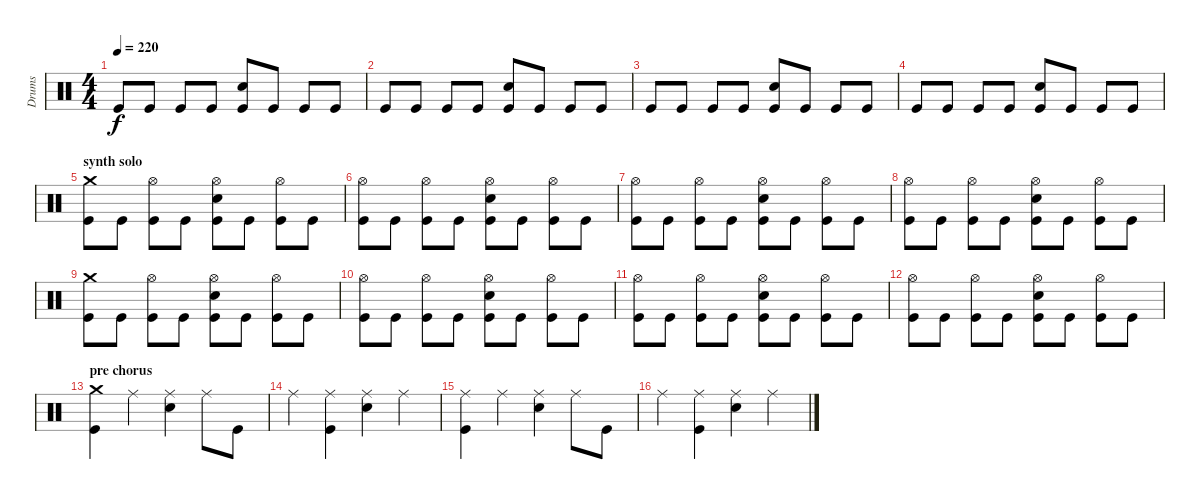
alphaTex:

\track ("Drums" "Drums") {instrument percussion}
\staff {score}
\articulation defaults
\ts (4 4)
\tempo 220
\clef neutral
\ks c "Kick (hit)".8{dy f} "Kick (hit)".8 "Kick (hit)"{x}.8 "Kick (hit)".8
("Electric Snare (hit)" "Kick (hit)").8 "Kick (hit)".8 "Kick (hit)"{x}.8 "Kick (hit)".8 |
"Kick (hit)".8 "Kick (hit)".8 "Kick (hit)"{x}.8 "Kick (hit)".8 ("Electric Snare (hit)" "Kick (hit)").8 "Kick (hit)".8 "Kick (hit)"{x}.8 "Kick (hit)".8 |
"Kick (hit)".8 "Kick (hit)".8 "Kick (hit)"{x}.8 "Kick (hit)".8 ("Electric Snare (hit)" "Kick (hit)").8 "Kick (hit)".8 "Kick (hit)"{x}.8 "Kick (hit)".8 |
"Kick (hit)".8 "Kick (hit)".8 "Kick (hit)"{x}.8 "Kick (hit)".8 ("Electric Snare (hit)" "Kick (hit)").8 "Kick (hit)".8 "Kick (hit)"{x}.8 "Kick (hit)".8 |
\section ("" "synth solo")
("Crash medium (hit)" "Kick (hit)").8 "Kick (hit)".8 ("Hi-Hat (open)" "Kick (hit)"{x}).8 "Kick (hit)".8 ("Hi-Hat (open)" "Electric Snare (hit)" "Kick (hit)").8 "Kick (hit)".8 ("Hi-Hat (open)" "Kick (hit)"{x}).8 "Kick (hit)".8 |
("Hi-Hat (open)" "Kick (hit)").8 "Kick (hit)".8 ("Hi-Hat (open)" "Kick (hit)"{x}).8 "Kick (hit)".8 ("Hi-Hat (open)" "Electric Snare (hit)" "Kick (hit)").8 "Kick (hit)".8 ("Hi-Hat (open)" "Kick (hit)"{x}).8 "Kick (hit)".8 |
("Hi-Hat (open)" "Kick (hit)").8 "Kick (hit)".8 ("Hi-Hat (open)" "Kick (hit)"{x}).8 "Kick (hit)".8 ("Hi-Hat (open)" "Electric Snare (hit)" "Kick (hit)").8 "Kick (hit)".8 ("Hi-Hat (open)" "Kick (hit)"{x}).8 "Kick (hit)".8 |
("Hi-Hat (open)" "Kick (hit)").8 "Kick (hit)".8 ("Hi-Hat (open)" "Kick (hit)"{x}).8 "Kick (hit)".8 ("Hi-Hat (open)" "Electric Snare (hit)" "Kick (hit)").8 "Kick (hit)".8 ("Hi-Hat (open)" "Kick (hit)"{x}).8 "Kick (hit)".8 |
("Crash medium (hit)" "Kick (hit)").8 "Kick (hit)".8 ("Hi-Hat (open)" "Kick (hit)"{x}).8 "Kick (hit)".8 ("Hi-Hat (open)" "Electric Snare (hit)" "Kick (hit)").8 "Kick (hit)".8 ("Hi-Hat (open)" "Kick (hit)"{x}).8 "Kick (hit)".8 |
("Hi-Hat (open)" "Kick (hit)").8 "Kick (hit)".8 ("Hi-Hat (open)" "Kick (hit)"{x}).8 "Kick (hit)".8 ("Hi-Hat (open)" "Electric Snare (hit)" "Kick (hit)").8 "Kick (hit)".8 ("Hi-Hat (open)" "Kick (hit)"{x}).8 "Kick (hit)".8 |
("Hi-Hat (open)" "Kick (hit)").8 "Kick (hit)".8 ("Hi-Hat (open)" "Kick (hit)"{x}).8 "Kick (hit)".8 ("Hi-Hat (open)" "Electric Snare (hit)" "Kick (hit)").8 "Kick (hit)".8 ("Hi-Hat (open)" "Kick (hit)"{x}).8 "Kick (hit)".8 |
("Hi-Hat (open)" "Kick (hit)").8 "Kick (hit)".8 ("Hi-Hat (open)" "Kick (hit)"{x}).8 "Kick (hit)".8 ("Hi-Hat (open)" "Electric Snare (hit)" "Kick (hit)").8 "Kick (hit)".8 ("Hi-Hat (open)" "Kick (hit)"{x}).8 "Kick (hit)".8 |
\section ("" "pre chorus")
("Crash medium (hit)" "Kick (hit)").4 "Ride (middle)".4 ("Ride (middle)" "Electric Snare (hit)").4 "Ride (middle)".8 "Kick (hit)".8 |
"Ride (middle)".4 ("Ride (middle)" "Kick (hit)").4 ("Ride (middle)" "Electric Snare (hit)").4 "Ride (middle)".4 |
("Ride (middle)" "Kick (hit)").4 "Ride (middle)".4 ("Ride (middle)" "Electric Snare (hit)").4 "Ride (middle)".8 "Kick (hit)".8 |
"Ride (middle)".4 ("Ride (middle)" "Kick (hit)").4 ("Ride (middle)" "Electric Snare (hit)").4 "Ride (middle)".4
